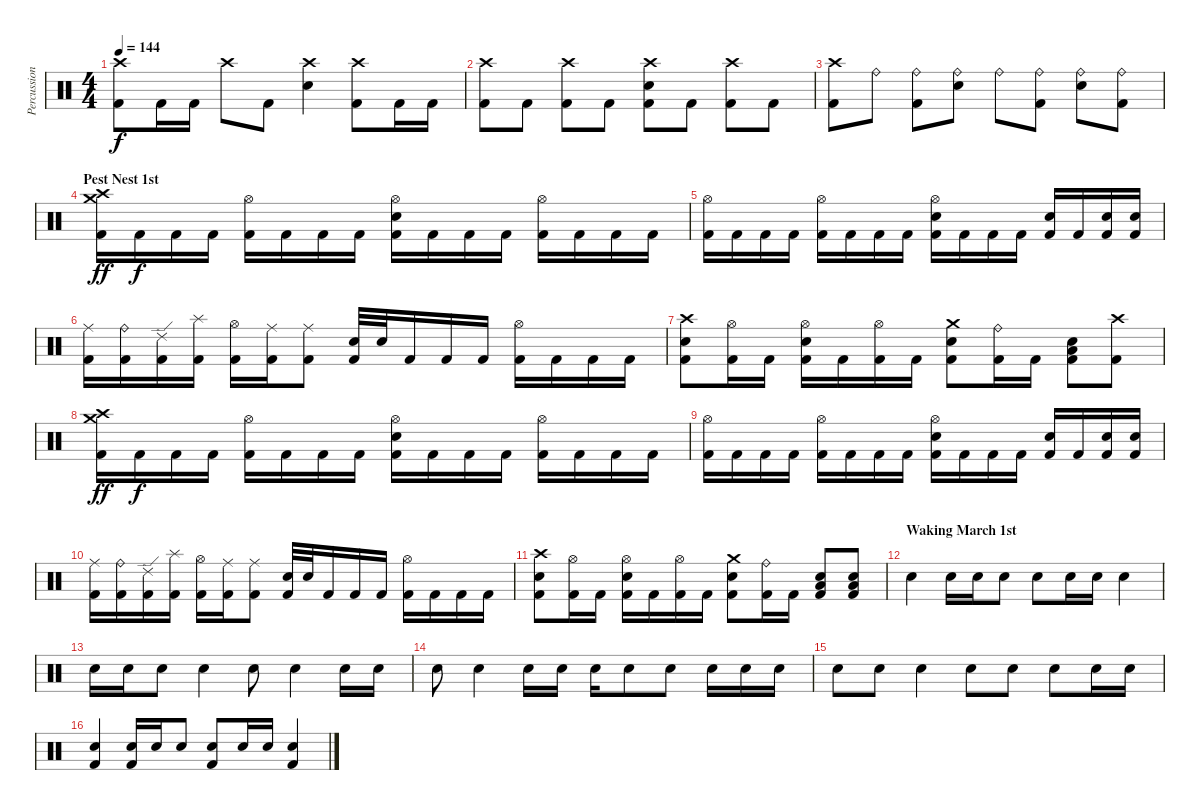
\track ("Percussion" "Percussion") {instrument percussion}
\staff {score}
\articulation defaults
\ts (4 4)
\tempo 144
\clef neutral
\ks c
("Crash high (hit)" "Kick (hit) 2").8{dy f} "Kick (hit) 2".16 "Kick (hit) 2".16 "Crash high (hit)".8 "Kick (hit) 2".8 ("Crash high (hit)" "Electric Snare (hit)").4 ("Crash high (hit)" "Kick (hit) 2").8 "Kick (hit) 2".16 "Kick (hit) 2".16 |
("Crash high (hit)" "Kick (hit) 2").8 "Kick (hit) 2".8 ("Crash high (hit)" "Kick (hit) 2").8 "Kick (hit) 2".8 ("Crash high (hit)" "Electric Snare (hit)" "Kick (hit) 2").8 "Kick (hit) 2".8 ("Crash high (hit)" "Kick (hit) 2").8 "Kick (hit) 2".8 |
("Crash high (hit)" "Kick (hit) 2").8 "Ride (bell)".8 ("Ride (bell)" "Kick (hit) 2").8 ("Ride (bell)" "Electric Snare (hit)").8 "Ride (bell)".8 ("Ride (bell)" "Kick (hit) 2").8 ("Ride (bell)" "Electric Snare (hit)").8 ("Ride (bell)" "Kick (hit) 2").8 |
\section ("" "Pest Nest 1st")
("Crash high (hit)" "Crash medium (hit)" "Kick (hit) 2").16{dy ff} "Kick (hit) 2".16{dy f} "Kick (hit) 2".16 "Kick (hit) 2".16 ("Hi-Hat (open)" "Kick (hit) 2").16 "Kick (hit) 2".16 "Kick (hit) 2".16 "Kick (hit) 2".16 ("Hi-Hat (open)" "Electric Snare (hit)" "Kick (hit) 2").16 "Kick (hit) 2".16 "Kick (hit) 2".16 "Kick (hit) 2".16 ("Hi-Hat (open)" "Kick (hit) 2").16 "Kick (hit) 2".16 "Kick (hit) 2".16 "Kick (hit) 2".16 |
("Hi-Hat (open)" "Kick (hit) 2").16 "Kick (hit) 2".16 "Kick (hit) 2".16 "Kick (hit) 2".16 ("Hi-Hat (open)" "Kick (hit) 2").16 "Kick (hit) 2".16 "Kick (hit) 2".16 "Kick (hit) 2".16 ("Hi-Hat (open)" "Electric Snare (hit)" "Kick (hit) 2").16 "Kick (hit) 2".16 "Kick (hit) 2".16 "Kick (hit) 2".16 ("Electric Snare (hit)" "Kick (hit) 2").16 "Kick (hit) 2".16 ("Electric Snare (hit)" "Kick (hit) 2").16 ("Electric Snare (hit)" "Kick (hit) 2").16 |
("Ride (middle)" "Kick (hit) 2").16 ("Ride (bell)" "Kick (hit) 2").16 ("Ride (edge) 2" "Kick (hit) 2").16 ("Splash (hit)" "Kick (hit) 2").16 ("Hi-Hat (open)" "Kick (hit) 2").16 ("Ride (middle)" "Kick (hit) 2").16 ("Ride (middle)" "Kick (hit) 2").8 ("Electric Snare (hit)" "Kick (hit) 2").32 "Electric Snare (hit)".32 "Kick (hit) 2".16 "Kick (hit) 2".16 "Kick (hit) 2".16 ("Hi-Hat (open)" "Kick (hit) 2").16 "Kick (hit) 2".16 "Kick (hit) 2".16 "Kick (hit) 2".16 |
("Crash high (hit)" "Electric Snare (hit)" "Kick (hit) 2").8 ("Hi-Hat (open)" "Kick (hit) 2").16 "Kick (hit) 2".16 ("Hi-Hat (open)" "Electric Snare (hit)" "Kick (hit) 2").16 "Kick (hit) 2".16 ("Hi-Hat (open)" "Kick (hit) 2").16 "Kick (hit) 2".16 ("Crash medium (hit)" "Electric Snare (hit)" "Kick (hit) 2").8 ("Ride (bell)" "Kick (hit) 2").16 "Kick (hit) 2".16 ("Low Tom (hit)" "Electric Snare (hit)" "Kick (hit) 2").8 ("Crash high (hit)" "Kick (hit) 2").8 |
("Crash high (hit)" "Crash medium (hit)" "Kick (hit) 2").16{dy ff} "Kick (hit) 2".16{dy f} "Kick (hit) 2".16 "Kick (hit) 2".16 ("Hi-Hat (open)" "Kick (hit) 2").16 "Kick (hit) 2".16 "Kick (hit) 2".16 "Kick (hit) 2".16 ("Hi-Hat (open)" "Electric Snare (hit)" "Kick (hit) 2").16 "Kick (hit) 2".16 "Kick (hit) 2".16 "Kick (hit) 2".16 ("Hi-Hat (open)" "Kick (hit) 2").16 "Kick (hit) 2".16 "Kick (hit) 2".16 "Kick (hit) 2".16 |
("Hi-Hat (open)" "Kick (hit) 2").16 "Kick (hit) 2".16 "Kick (hit) 2".16 "Kick (hit) 2".16 ("Hi-Hat (open)" "Kick (hit) 2").16 "Kick (hit) 2".16 "Kick (hit) 2".16 "Kick (hit) 2".16 ("Hi-Hat (open)" "Electric Snare (hit)" "Kick (hit) 2").16 "Kick (hit) 2".16 "Kick (hit) 2".16 "Kick (hit) 2".16 ("Electric Snare (hit)" "Kick (hit) 2").16 "Kick (hit) 2".16 ("Electric Snare (hit)" "Kick (hit) 2").16 ("Electric Snare (hit)" "Kick (hit) 2").16 |
("Ride (middle)" "Kick (hit) 2").16 ("Ride (bell)" "Kick (hit) 2").16 ("Ride (edge) 2" "Kick (hit) 2").16 ("Splash (hit)" "Kick (hit) 2").16 ("Hi-Hat (open)" "Kick (hit) 2").16 ("Ride (middle)" "Kick (hit) 2").16 ("Ride (middle)" "Kick (hit) 2").8 ("Electric Snare (hit)" "Kick (hit) 2").32 "Electric Snare (hit)".32 "Kick (hit) 2".16 "Kick (hit) 2".16 "Kick (hit) 2".16 ("Hi-Hat (open)" "Kick (hit) 2").16 "Kick (hit) 2".16 "Kick (hit) 2".16 "Kick (hit) 2".16 |
("Crash high (hit)" "Electric Snare (hit)" "Kick (hit) 2").8 ("Hi-Hat (open)" "Kick (hit) 2").16 "Kick (hit) 2".16 ("Hi-Hat (open)" "Electric Snare (hit)" "Kick (hit) 2").16 "Kick (hit) 2".16 ("Hi-Hat (open)" "Kick (hit) 2").16 "Kick (hit) 2".16 ("Crash medium (hit)" "Electric Snare (hit)" "Kick (hit) 2").8 ("Ride (bell)" "Kick (hit) 2").16 "Kick (hit) 2".16 ("Low Tom (hit)" "Electric Snare (hit)" "Kick (hit) 2").8 ("Low Tom (hit)" "Electric Snare (hit)" "Kick (hit) 2").8 |
\section ("" "Waking March 1st")
"Electric Snare (hit)".4 "Electric Snare (hit)".16 "Electric Snare (hit)".16 "Electric Snare (hit)".8 "Electric Snare (hit)".8 "Electric Snare (hit)".16 "Electric Snare (hit)".16 "Electric Snare (hit)".4 |
"Electric Snare (hit)".16 "Electric Snare (hit)".16 "Electric Snare (hit)".8 "Electric Snare (hit)".4 "Electric Snare (hit)".8 "Electric Snare (hit)".4 "Electric Snare (hit)".16 "Electric Snare (hit)".16 |
"Electric Snare (hit)".8 "Electric Snare (hit)".4 "Electric Snare (hit)".16 "Electric Snare (hit)".16 "Electric Snare (hit)".16 "Electric Snare (hit)".8 "Electric Snare (hit)".8 "Electric Snare (hit)".16 "Electric Snare (hit)".16 "Electric Snare (hit)".16 |
"Electric Snare (hit)".8 "Electric Snare (hit)".8 "Electric Snare (hit)".4 "Electric Snare (hit)".8 "Electric Snare (hit)".8 "Electric Snare (hit)".8 "Electric Snare (hit)".16 "Electric Snare (hit)".16 |
("Electric Snare (hit)" "Kick (hit) 2").4 ("Electric Snare (hit)" "Kick (hit) 2").16 "Electric Snare (hit)".16 "Electric Snare (hit)".8 ("Electric Snare (hit)" "Kick (hit) 2").8 "Electric Snare (hit)".16 "Electric Snare (hit)".16 ("Electric Snare (hit)" "Kick (hit) 2").4
